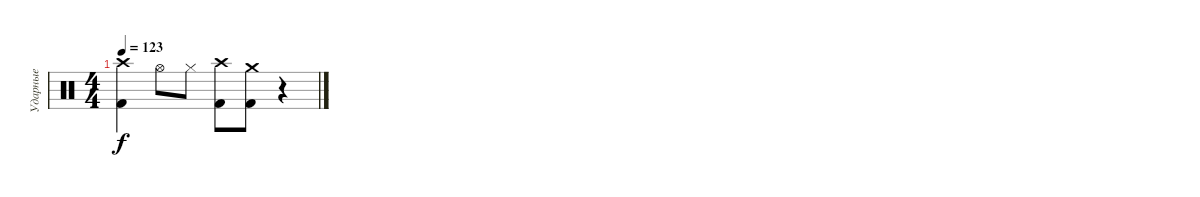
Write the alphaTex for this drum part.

\track ("Ударные" "Ударные") {instrument percussion}
\staff {score}
\articulation defaults
\ts (4 4)
\tempo 123
\clef neutral
\ks c
("Crash high (hit)" "Kick (hit) 2").4{dy f} "Hi-Hat (open)".8 "Hi-Hat (closed)".8 ("Crash high (hit)" "Kick (hit) 2").8 ("Crash medium (hit)" "Kick (hit) 2").8 r.4
